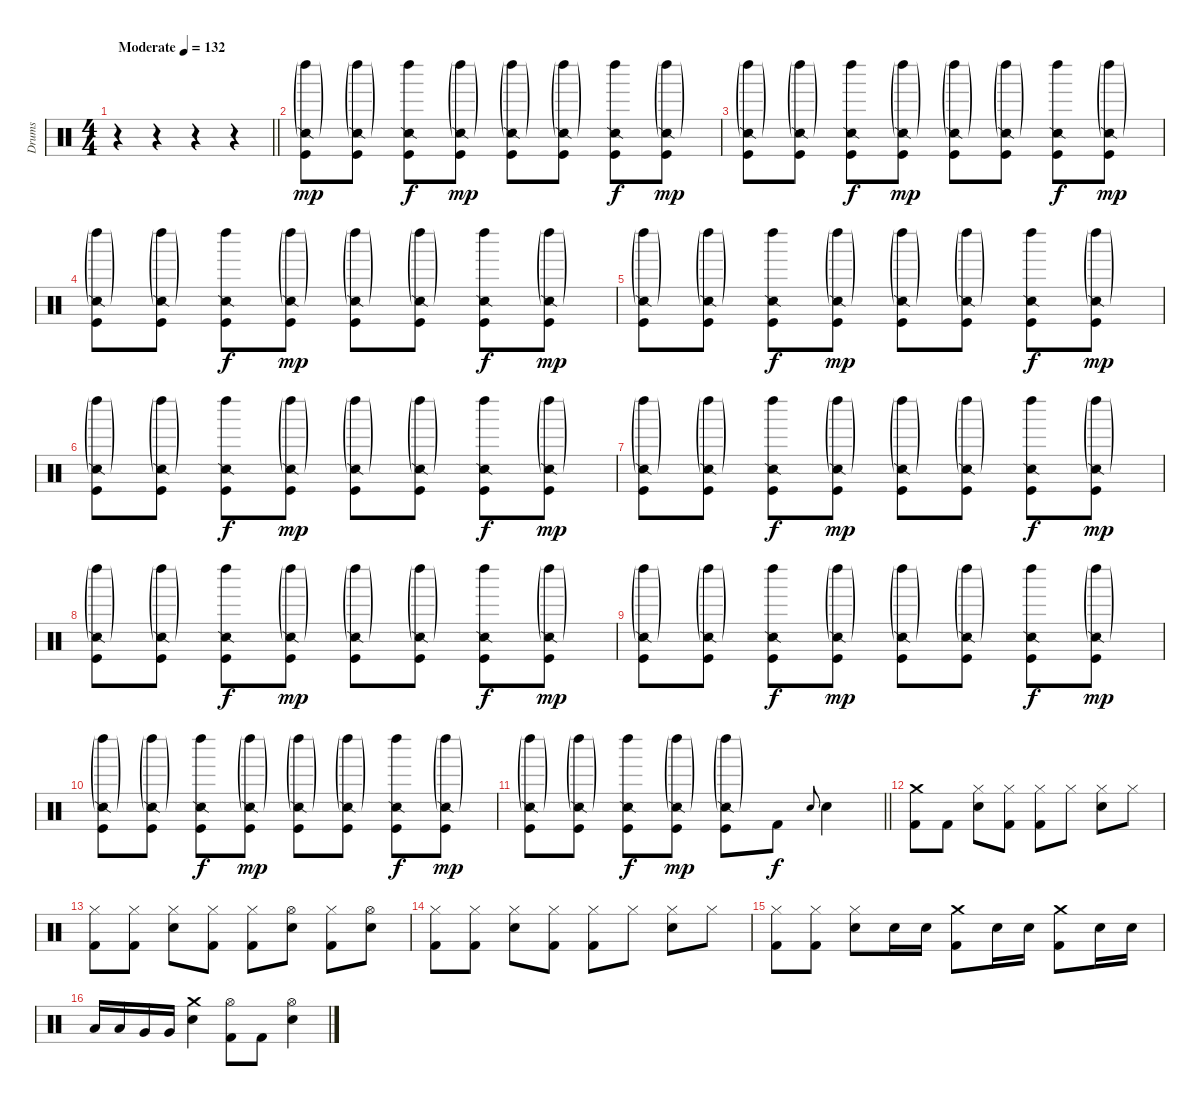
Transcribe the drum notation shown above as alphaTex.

\track ("Drums" "Drums") {instrument percussion}
\staff {score}
\articulation defaults
\ts (4 4)
\tempo (132 "Moderate")
\clef neutral
\barLineRight lightlight
\ks c
r.4{dy mp} r.4 r.4 r.4{volume 0} |
\section ("" "")
("Left Maraca (hit)"{g} "Snare (side stick) 2"{g} "Kick (hit)").8{volume 13} ("Left Maraca (hit)"{g} "Snare (side stick) 2"{g} "Kick (hit)").8 ("Left Maraca (hit)" "Snare (side stick) 2" "Kick (hit)").8{dy f} ("Left Maraca (hit)"{g} "Snare (side stick) 2"{g} "Kick (hit)").8{dy mp} ("Left Maraca (hit)"{g} "Snare (side stick) 2"{g} "Kick (hit)").8 ("Left Maraca (hit)"{g} "Snare (side stick) 2"{g} "Kick (hit)").8 ("Left Maraca (hit)" "Snare (side stick) 2" "Kick (hit)").8{dy f} ("Left Maraca (hit)"{g} "Snare (side stick) 2"{g} "Kick (hit)").8{dy mp} |
("Left Maraca (hit)"{g} "Snare (side stick) 2"{g} "Kick (hit)").8 ("Left Maraca (hit)"{g} "Snare (side stick) 2"{g} "Kick (hit)").8 ("Left Maraca (hit)" "Snare (side stick) 2" "Kick (hit)").8{dy f} ("Left Maraca (hit)"{g} "Snare (side stick) 2"{g} "Kick (hit)").8{dy mp} ("Left Maraca (hit)"{g} "Snare (side stick) 2"{g} "Kick (hit)").8 ("Left Maraca (hit)"{g} "Snare (side stick) 2"{g} "Kick (hit)").8 ("Left Maraca (hit)" "Snare (side stick) 2" "Kick (hit)").8{dy f} ("Left Maraca (hit)"{g} "Snare (side stick) 2"{g} "Kick (hit)").8{dy mp} |
("Left Maraca (hit)"{g} "Snare (side stick) 2"{g} "Kick (hit)").8 ("Left Maraca (hit)"{g} "Snare (side stick) 2"{g} "Kick (hit)").8 ("Left Maraca (hit)" "Snare (side stick) 2" "Kick (hit)").8{dy f} ("Left Maraca (hit)"{g} "Snare (side stick) 2"{g} "Kick (hit)").8{dy mp} ("Left Maraca (hit)"{g} "Snare (side stick) 2"{g} "Kick (hit)").8 ("Left Maraca (hit)"{g} "Snare (side stick) 2"{g} "Kick (hit)").8 ("Left Maraca (hit)" "Snare (side stick) 2" "Kick (hit)").8{dy f} ("Left Maraca (hit)"{g} "Snare (side stick) 2"{g} "Kick (hit)").8{dy mp} |
("Left Maraca (hit)"{g} "Snare (side stick) 2"{g} "Kick (hit)").8 ("Left Maraca (hit)"{g} "Snare (side stick) 2"{g} "Kick (hit)").8 ("Left Maraca (hit)" "Snare (side stick) 2" "Kick (hit)").8{dy f} ("Left Maraca (hit)"{g} "Snare (side stick) 2"{g} "Kick (hit)").8{dy mp} ("Left Maraca (hit)"{g} "Snare (side stick) 2"{g} "Kick (hit)").8 ("Left Maraca (hit)"{g} "Snare (side stick) 2"{g} "Kick (hit)").8 ("Left Maraca (hit)" "Snare (side stick) 2" "Kick (hit)").8{dy f} ("Left Maraca (hit)"{g} "Snare (side stick) 2"{g} "Kick (hit)").8{dy mp} |
("Left Maraca (hit)"{g} "Snare (side stick) 2"{g} "Kick (hit)").8 ("Left Maraca (hit)"{g} "Snare (side stick) 2"{g} "Kick (hit)").8 ("Left Maraca (hit)" "Snare (side stick) 2" "Kick (hit)").8{dy f} ("Left Maraca (hit)"{g} "Snare (side stick) 2"{g} "Kick (hit)").8{dy mp} ("Left Maraca (hit)"{g} "Snare (side stick) 2"{g} "Kick (hit)").8 ("Left Maraca (hit)"{g} "Snare (side stick) 2"{g} "Kick (hit)").8 ("Left Maraca (hit)" "Snare (side stick) 2" "Kick (hit)").8{dy f} ("Left Maraca (hit)"{g} "Snare (side stick) 2"{g} "Kick (hit)").8{dy mp} |
("Left Maraca (hit)"{g} "Snare (side stick) 2"{g} "Kick (hit)").8 ("Left Maraca (hit)"{g} "Snare (side stick) 2"{g} "Kick (hit)").8 ("Left Maraca (hit)" "Snare (side stick) 2" "Kick (hit)").8{dy f} ("Left Maraca (hit)"{g} "Snare (side stick) 2"{g} "Kick (hit)").8{dy mp} ("Left Maraca (hit)"{g} "Snare (side stick) 2"{g} "Kick (hit)").8 ("Left Maraca (hit)"{g} "Snare (side stick) 2"{g} "Kick (hit)").8 ("Left Maraca (hit)" "Snare (side stick) 2" "Kick (hit)").8{dy f} ("Left Maraca (hit)"{g} "Snare (side stick) 2"{g} "Kick (hit)").8{dy mp} |
("Left Maraca (hit)"{g} "Snare (side stick) 2"{g} "Kick (hit)").8 ("Left Maraca (hit)"{g} "Snare (side stick) 2"{g} "Kick (hit)").8 ("Left Maraca (hit)" "Snare (side stick) 2" "Kick (hit)").8{dy f} ("Left Maraca (hit)"{g} "Snare (side stick) 2"{g} "Kick (hit)").8{dy mp} ("Left Maraca (hit)"{g} "Snare (side stick) 2"{g} "Kick (hit)").8 ("Left Maraca (hit)"{g} "Snare (side stick) 2"{g} "Kick (hit)").8 ("Left Maraca (hit)" "Snare (side stick) 2" "Kick (hit)").8{dy f} ("Left Maraca (hit)"{g} "Snare (side stick) 2"{g} "Kick (hit)").8{dy mp} |
("Left Maraca (hit)"{g} "Snare (side stick) 2"{g} "Kick (hit)").8 ("Left Maraca (hit)"{g} "Snare (side stick) 2"{g} "Kick (hit)").8 ("Left Maraca (hit)" "Snare (side stick) 2" "Kick (hit)").8{dy f} ("Left Maraca (hit)"{g} "Snare (side stick) 2"{g} "Kick (hit)").8{dy mp} ("Left Maraca (hit)"{g} "Snare (side stick) 2"{g} "Kick (hit)").8 ("Left Maraca (hit)"{g} "Snare (side stick) 2"{g} "Kick (hit)").8 ("Left Maraca (hit)" "Snare (side stick) 2" "Kick (hit)").8{dy f} ("Left Maraca (hit)"{g} "Snare (side stick) 2"{g} "Kick (hit)").8{dy mp} |
("Left Maraca (hit)"{g} "Snare (side stick) 2"{g} "Kick (hit)").8 ("Left Maraca (hit)"{g} "Snare (side stick) 2"{g} "Kick (hit)").8 ("Left Maraca (hit)" "Snare (side stick) 2" "Kick (hit)").8{dy f} ("Left Maraca (hit)"{g} "Snare (side stick) 2"{g} "Kick (hit)").8{dy mp} ("Left Maraca (hit)"{g} "Snare (side stick) 2"{g} "Kick (hit)").8 ("Left Maraca (hit)"{g} "Snare (side stick) 2"{g} "Kick (hit)").8 ("Left Maraca (hit)" "Snare (side stick) 2" "Kick (hit)").8{dy f} ("Left Maraca (hit)"{g} "Snare (side stick) 2"{g} "Kick (hit)").8{dy mp} |
\barLineRight lightlight
("Left Maraca (hit)"{g} "Snare (side stick) 2"{g} "Kick (hit)").8 ("Left Maraca (hit)"{g} "Snare (side stick) 2"{g} "Kick (hit)").8 ("Left Maraca (hit)" "Snare (side stick) 2" "Kick (hit)").8{dy f} ("Left Maraca (hit)"{g} "Snare (side stick) 2"{g} "Kick (hit)").8{dy mp} ("Left Maraca (hit)"{g} "Snare (side stick) 2"{g} "Kick (hit)").8 "Kick (hit) 2".8{dy f} "Electric Snare (hit)".8{gr onbeat} "Electric Snare (hit)".4 |
\section ("" "")
("Crash medium (hit)" "Kick (hit) 2").8 "Kick (hit) 2".8 ("Hi-Hat (closed)" "Electric Snare (hit)").8 ("Hi-Hat (closed)" "Kick (hit) 2").8 ("Hi-Hat (closed)" "Kick (hit) 2").8 "Hi-Hat (closed)".8 ("Hi-Hat (closed)" "Electric Snare (hit)").8 "Hi-Hat (closed)".8 |
("Hi-Hat (closed)" "Kick (hit) 2").8 ("Hi-Hat (closed)" "Kick (hit) 2").8 ("Hi-Hat (closed)" "Electric Snare (hit)").8 ("Hi-Hat (closed)" "Kick (hit) 2").8 ("Hi-Hat (closed)" "Kick (hit) 2").8 ("Hi-Hat (open)" "Electric Snare (hit)").8 ("Hi-Hat (closed)" "Kick (hit) 2").8 ("Hi-Hat (open)" "Electric Snare (hit)").8 |
("Hi-Hat (closed)" "Kick (hit) 2").8 ("Hi-Hat (closed)" "Kick (hit) 2").8 ("Hi-Hat (closed)" "Electric Snare (hit)").8 ("Hi-Hat (closed)" "Kick (hit) 2").8 ("Hi-Hat (closed)" "Kick (hit) 2").8 "Hi-Hat (closed)".8 ("Hi-Hat (closed)" "Electric Snare (hit)").8 "Hi-Hat (closed)".8 |
("Hi-Hat (closed)" "Kick (hit) 2").8 ("Hi-Hat (closed)" "Kick (hit) 2").8 ("Hi-Hat (closed)" "Electric Snare (hit)").8 "Electric Snare (hit)".16 "Electric Snare (hit)".16 ("Crash medium (hit)" "Kick (hit) 2").8 "Electric Snare (hit)".16 "Electric Snare (hit)".16 ("Crash medium (hit)" "Kick (hit) 2").8 "Electric Snare (hit)".16 "Electric Snare (hit)".16 |
"Low Tom (hit)".16 "Low Tom (hit)".16 "Very Low Tom (hit)".16 "Very Low Tom (hit)".16 ("Crash medium (hit)" "Electric Snare (hit)").4 ("Hi-Hat (open)" "Kick (hit) 2").8 "Kick (hit) 2".8 ("Hi-Hat (open)" "Electric Snare (hit)").4
